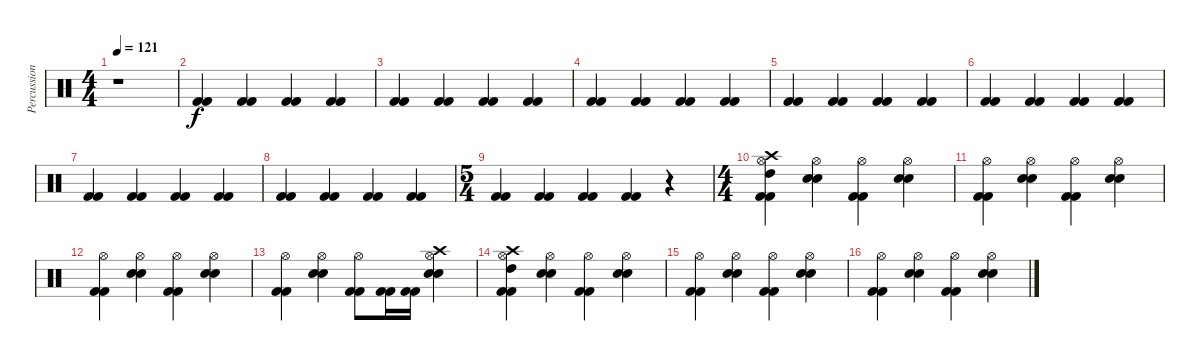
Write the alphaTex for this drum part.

\track ("Percussion" "Percussion") {instrument percussion}
\staff {score}
\articulation defaults
\ts (4 4)
\tempo 121
\clef neutral
\ks c
r.1{dy f} |
("Kick (hit) 2" "Kick (hit) 2").4 ("Kick (hit) 2" "Kick (hit) 2").4 ("Kick (hit) 2" "Kick (hit) 2").4 ("Kick (hit) 2" "Kick (hit) 2").4 |
("Kick (hit) 2" "Kick (hit) 2").4 ("Kick (hit) 2" "Kick (hit) 2").4 ("Kick (hit) 2" "Kick (hit) 2").4 ("Kick (hit) 2" "Kick (hit) 2").4 |
("Kick (hit) 2" "Kick (hit) 2").4 ("Kick (hit) 2" "Kick (hit) 2").4 ("Kick (hit) 2" "Kick (hit) 2").4 ("Kick (hit) 2" "Kick (hit) 2").4 |
("Kick (hit) 2" "Kick (hit) 2").4 ("Kick (hit) 2" "Kick (hit) 2").4 ("Kick (hit) 2" "Kick (hit) 2").4 ("Kick (hit) 2" "Kick (hit) 2").4 |
("Kick (hit) 2" "Kick (hit) 2").4 ("Kick (hit) 2" "Kick (hit) 2").4 ("Kick (hit) 2" "Kick (hit) 2").4 ("Kick (hit) 2" "Kick (hit) 2").4 |
("Kick (hit) 2" "Kick (hit) 2").4 ("Kick (hit) 2" "Kick (hit) 2").4 ("Kick (hit) 2" "Kick (hit) 2").4 ("Kick (hit) 2" "Kick (hit) 2").4 |
("Kick (hit) 2" "Kick (hit) 2").4 ("Kick (hit) 2" "Kick (hit) 2").4 ("Kick (hit) 2" "Kick (hit) 2").4 ("Kick (hit) 2" "Kick (hit) 2").4 |
\ts (5 4)
("Kick (hit) 2" "Kick (hit) 2").4 ("Kick (hit) 2" "Kick (hit) 2").4 ("Kick (hit) 2" "Kick (hit) 2").4 ("Kick (hit) 2" "Kick (hit) 2").4 r.4 |
\ts (4 4)
("Crash high (hit)" "High Tom (hit)" "Hi-Hat (open)" "Kick (hit) 2" "Kick (hit) 2").4 ("Hi-Hat (open)" "Electric Snare (hit)" "Electric Snare (hit)").4 ("Hi-Hat (open)" "Kick (hit) 2" "Kick (hit) 2").4 ("Hi-Hat (open)" "Electric Snare (hit)" "Electric Snare (hit)").4 |
("Hi-Hat (open)" "Kick (hit) 2" "Kick (hit) 2").4 ("Hi-Hat (open)" "Electric Snare (hit)" "Electric Snare (hit)").4 ("Hi-Hat (open)" "Kick (hit) 2" "Kick (hit) 2").4 ("Hi-Hat (open)" "Electric Snare (hit)" "Electric Snare (hit)").4 |
("Hi-Hat (open)" "Kick (hit) 2" "Kick (hit) 2").4 ("Hi-Hat (open)" "Electric Snare (hit)" "Electric Snare (hit)").4 ("Hi-Hat (open)" "Kick (hit) 2" "Kick (hit) 2").4 ("Hi-Hat (open)" "Electric Snare (hit)" "Electric Snare (hit)").4 |
("Hi-Hat (open)" "Kick (hit) 2" "Kick (hit) 2").4 ("Hi-Hat (open)" "Electric Snare (hit)" "Electric Snare (hit)").4 ("Hi-Hat (open)" "Kick (hit) 2" "Kick (hit) 2").8 ("Kick (hit) 2" "Kick (hit) 2").16 ("Kick (hit) 2" "Kick (hit) 2").16 ("Crash high (hit)" "Hi-Hat (open)" "Electric Snare (hit)" "Electric Snare (hit)").4 |
("Crash high (hit)" "High Tom (hit)" "Hi-Hat (open)" "Kick (hit) 2" "Kick (hit) 2").4 ("Hi-Hat (open)" "Electric Snare (hit)" "Electric Snare (hit)").4 ("Hi-Hat (open)" "Kick (hit) 2" "Kick (hit) 2").4 ("Hi-Hat (open)" "Electric Snare (hit)" "Electric Snare (hit)").4 |
("Hi-Hat (open)" "Kick (hit) 2" "Kick (hit) 2").4 ("Hi-Hat (open)" "Electric Snare (hit)" "Electric Snare (hit)").4 ("Hi-Hat (open)" "Kick (hit) 2" "Kick (hit) 2").4 ("Hi-Hat (open)" "Electric Snare (hit)" "Electric Snare (hit)").4 |
("Hi-Hat (open)" "Kick (hit) 2" "Kick (hit) 2").4 ("Hi-Hat (open)" "Electric Snare (hit)" "Electric Snare (hit)").4 ("Hi-Hat (open)" "Kick (hit) 2" "Kick (hit) 2").4 ("Hi-Hat (open)" "Electric Snare (hit)" "Electric Snare (hit)").4
